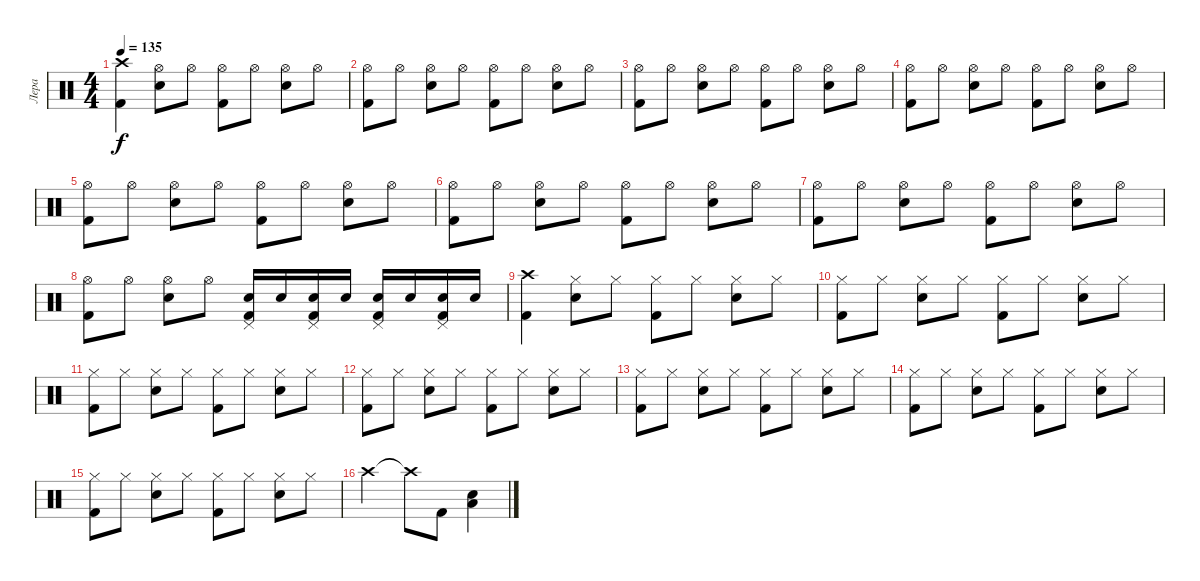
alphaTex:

\track ("Лера" "Лера") {instrument percussion}
\staff {score}
\articulation defaults
\ts (4 4)
\tempo 135
\clef neutral
\ks c
("Crash high (hit)" "Kick (hit) 2").4{dy f} ("Hi-Hat (open)" "Electric Snare (hit)").8 "Hi-Hat (open)".8 ("Hi-Hat (open)" "Kick (hit) 2").8 "Hi-Hat (open)".8 ("Hi-Hat (open)" "Electric Snare (hit)").8 "Hi-Hat (open)".8 |
("Hi-Hat (open)" "Kick (hit) 2").8 "Hi-Hat (open)".8 ("Hi-Hat (open)" "Electric Snare (hit)").8 "Hi-Hat (open)".8 ("Hi-Hat (open)" "Kick (hit) 2").8 "Hi-Hat (open)".8 ("Hi-Hat (open)" "Electric Snare (hit)").8 "Hi-Hat (open)".8 |
("Hi-Hat (open)" "Kick (hit) 2").8 "Hi-Hat (open)".8 ("Hi-Hat (open)" "Electric Snare (hit)").8 "Hi-Hat (open)".8 ("Hi-Hat (open)" "Kick (hit) 2").8 "Hi-Hat (open)".8 ("Hi-Hat (open)" "Electric Snare (hit)").8 "Hi-Hat (open)".8 |
("Hi-Hat (open)" "Kick (hit) 2").8 "Hi-Hat (open)".8 ("Hi-Hat (open)" "Electric Snare (hit)").8 "Hi-Hat (open)".8 ("Hi-Hat (open)" "Kick (hit) 2").8 "Hi-Hat (open)".8 ("Hi-Hat (open)" "Electric Snare (hit)").8 "Hi-Hat (open)".8 |
("Hi-Hat (open)" "Kick (hit) 2").8 "Hi-Hat (open)".8 ("Hi-Hat (open)" "Electric Snare (hit)").8 "Hi-Hat (open)".8 ("Hi-Hat (open)" "Kick (hit) 2").8 "Hi-Hat (open)".8 ("Hi-Hat (open)" "Electric Snare (hit)").8 "Hi-Hat (open)".8 |
("Hi-Hat (open)" "Kick (hit) 2").8 "Hi-Hat (open)".8 ("Hi-Hat (open)" "Electric Snare (hit)").8 "Hi-Hat (open)".8 ("Hi-Hat (open)" "Kick (hit) 2").8 "Hi-Hat (open)".8 ("Hi-Hat (open)" "Electric Snare (hit)").8 "Hi-Hat (open)".8 |
("Hi-Hat (open)" "Kick (hit) 2").8 "Hi-Hat (open)".8 ("Hi-Hat (open)" "Electric Snare (hit)").8 "Hi-Hat (open)".8 ("Hi-Hat (open)" "Kick (hit) 2").8 "Hi-Hat (open)".8 ("Hi-Hat (open)" "Electric Snare (hit)").8 "Hi-Hat (open)".8 |
("Hi-Hat (open)" "Kick (hit) 2").8 "Hi-Hat (open)".8 ("Hi-Hat (open)" "Electric Snare (hit)").8 "Hi-Hat (open)".8 ("Electric Snare (hit)" "Kick (hit) 2" "Pedal Hi-Hat (hit)").16 "Electric Snare (hit)".16 ("Electric Snare (hit)" "Kick (hit) 2" "Pedal Hi-Hat (hit)").16 "Electric Snare (hit)".16 ("Electric Snare (hit)" "Kick (hit) 2" "Pedal Hi-Hat (hit)").16 "Electric Snare (hit)".16 ("Electric Snare (hit)" "Kick (hit) 2" "Pedal Hi-Hat (hit)").16 "Electric Snare (hit)".16 |
("Crash high (hit)" "Kick (hit) 2").4 ("Hi-Hat (closed)" "Electric Snare (hit)").8 "Hi-Hat (closed)".8 ("Hi-Hat (closed)" "Kick (hit) 2").8 "Hi-Hat (closed)".8 ("Hi-Hat (closed)" "Electric Snare (hit)").8 "Hi-Hat (closed)".8 |
("Hi-Hat (closed)" "Kick (hit) 2").8 "Hi-Hat (closed)".8 ("Hi-Hat (closed)" "Electric Snare (hit)").8 "Hi-Hat (closed)".8 ("Hi-Hat (closed)" "Kick (hit) 2").8 "Hi-Hat (closed)".8 ("Hi-Hat (closed)" "Electric Snare (hit)").8 "Hi-Hat (closed)".8 |
("Hi-Hat (closed)" "Kick (hit) 2").8 "Hi-Hat (closed)".8 ("Hi-Hat (closed)" "Electric Snare (hit)").8 "Hi-Hat (closed)".8 ("Hi-Hat (closed)" "Kick (hit) 2").8 "Hi-Hat (closed)".8 ("Hi-Hat (closed)" "Electric Snare (hit)").8 "Hi-Hat (closed)".8 |
("Hi-Hat (closed)" "Kick (hit) 2").8 "Hi-Hat (closed)".8 ("Hi-Hat (closed)" "Electric Snare (hit)").8 "Hi-Hat (closed)".8 ("Hi-Hat (closed)" "Kick (hit) 2").8 "Hi-Hat (closed)".8 ("Hi-Hat (closed)" "Electric Snare (hit)").8 "Hi-Hat (closed)".8 |
("Hi-Hat (closed)" "Kick (hit) 2").8 "Hi-Hat (closed)".8 ("Hi-Hat (closed)" "Electric Snare (hit)").8 "Hi-Hat (closed)".8 ("Hi-Hat (closed)" "Kick (hit) 2").8 "Hi-Hat (closed)".8 ("Hi-Hat (closed)" "Electric Snare (hit)").8 "Hi-Hat (closed)".8 |
("Hi-Hat (closed)" "Kick (hit) 2").8 "Hi-Hat (closed)".8 ("Hi-Hat (closed)" "Electric Snare (hit)").8 "Hi-Hat (closed)".8 ("Hi-Hat (closed)" "Kick (hit) 2").8 "Hi-Hat (closed)".8 ("Hi-Hat (closed)" "Electric Snare (hit)").8 "Hi-Hat (closed)".8 |
("Hi-Hat (closed)" "Kick (hit) 2").8 "Hi-Hat (closed)".8 ("Hi-Hat (closed)" "Electric Snare (hit)").8 "Hi-Hat (closed)".8 ("Hi-Hat (closed)" "Kick (hit) 2").8 "Hi-Hat (closed)".8 ("Hi-Hat (closed)" "Electric Snare (hit)").8 "Hi-Hat (closed)".8 |
"Crash high (hit)".2 "Crash high (hit)"{t}.8 "Kick (hit) 2".8 ("Electric Snare (hit)" "Low Tom (hit)").4
